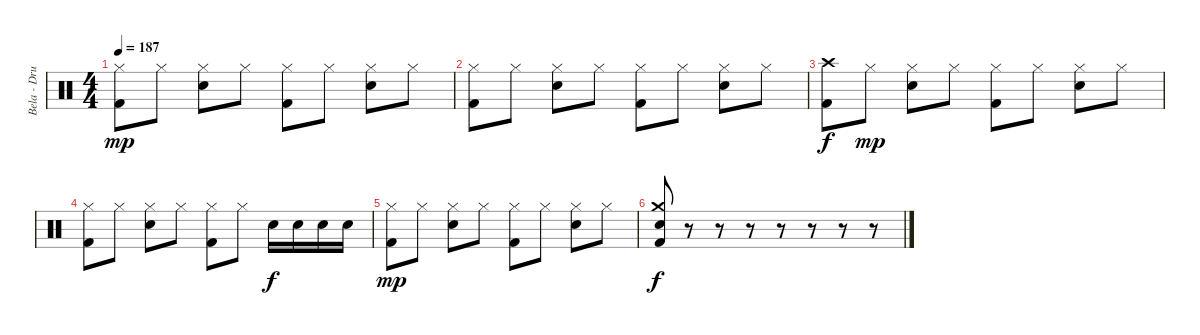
\track ("Bela - Drums" "Bela - Dru") {instrument percussion}
\staff {score}
\articulation defaults
\ts (4 4)
\tempo 187
\clef neutral
\ks c
("Hi-Hat (closed)" "Kick (hit) 2").8{dy mp} "Hi-Hat (closed)".8 ("Hi-Hat (closed)" "Snare (hit) 2").8 "Hi-Hat (closed)".8 ("Hi-Hat (closed)" "Kick (hit) 2").8 "Hi-Hat (closed)".8 ("Hi-Hat (closed)" "Snare (hit) 2").8 "Hi-Hat (closed)".8 |
("Hi-Hat (closed)" "Kick (hit) 2").8 "Hi-Hat (closed)".8 ("Hi-Hat (closed)" "Snare (hit) 2").8 "Hi-Hat (closed)".8 ("Hi-Hat (closed)" "Kick (hit) 2").8 "Hi-Hat (closed)".8 ("Hi-Hat (closed)" "Snare (hit) 2").8 "Hi-Hat (closed)".8 |
("Crash high (hit)" "Kick (hit) 2").8{dy f} "Hi-Hat (closed)".8{dy mp} ("Hi-Hat (closed)" "Snare (hit) 2").8 "Hi-Hat (closed)".8 ("Hi-Hat (closed)" "Kick (hit) 2").8 "Hi-Hat (closed)".8 ("Hi-Hat (closed)" "Snare (hit) 2").8 "Hi-Hat (closed)".8 |
("Hi-Hat (closed)" "Kick (hit) 2").8 "Hi-Hat (closed)".8 ("Hi-Hat (closed)" "Snare (hit) 2").8 "Hi-Hat (closed)".8 ("Hi-Hat (closed)" "Kick (hit) 2").8 "Hi-Hat (closed)".8 "Snare (hit) 2".16{dy f} "Snare (hit) 2".16 "Snare (hit) 2".16 "Snare (hit) 2".16 |
("Hi-Hat (closed)" "Kick (hit) 2").8{dy mp} "Hi-Hat (closed)".8 ("Hi-Hat (closed)" "Snare (hit) 2").8 "Hi-Hat (closed)".8 ("Hi-Hat (closed)" "Kick (hit) 2").8 "Hi-Hat (closed)".8 ("Hi-Hat (closed)" "Snare (hit) 2").8 "Hi-Hat (closed)".8 |
("Crash medium (hit)" "Electric Snare (hit)" "Kick (hit) 2").8{dy f} r.8 r.8 r.8 r.8 r.8 r.8 r.8
